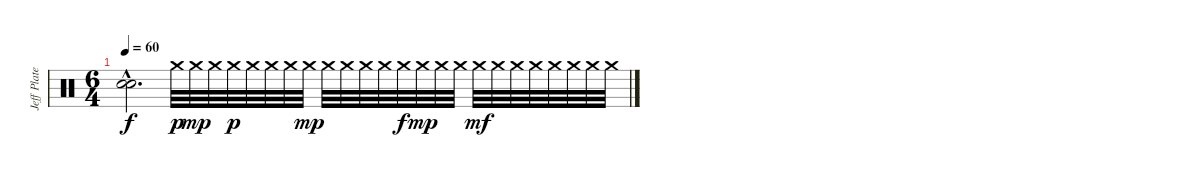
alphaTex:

\track ("Jeff Plate" "Jeff Plate") {instrument percussion}
\staff {score}
\articulation defaults
\ts (6 4)
\tempo 60
\clef neutral
\ks c
("Snare (hit)"{hac t} "Snare (hit)"{hac t}).2{d dy f} "Crash medium (hit)".32{dy p} "Crash medium (hit)".32{dy mp} "Crash medium (hit)".32 "Crash medium (hit)".32{dy p} "Crash medium (hit)".32 "Crash medium (hit)".32 "Crash medium (hit)".32 "Crash medium (hit)".32{dy mp} "Crash medium (hit)".32 "Crash medium (hit)".32 "Crash medium (hit)".32 "Crash medium (hit)".32 "Crash medium (hit)".32{dy f} "Crash medium (hit)".32{dy mp} "Crash medium (hit)".32 "Crash medium (hit)".32 "Crash medium (hit)".32{dy mf} "Crash medium (hit)".32 "Crash medium (hit)".32 "Crash medium (hit)".32 "Crash medium (hit)".32 "Crash medium (hit)".32 "Crash medium (hit)".32 "Crash medium (hit)".32
